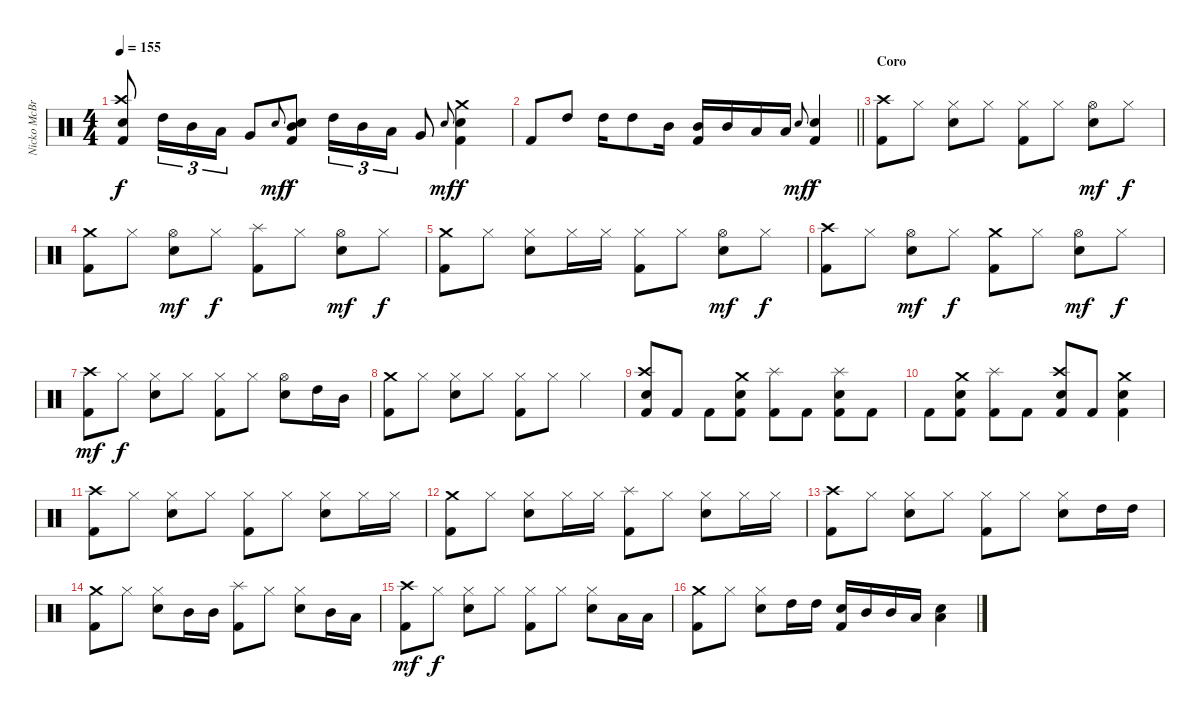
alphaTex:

\track ("Nicko McBrain" "Nicko McBr") {instrument percussion}
\staff {score}
\articulation defaults
\ts (4 4)
\tempo 155
\clef neutral
\ks c
("Snare (hit) 2" "Crash high (hit)" "Kick (hit) 2").8{dy f} "High Tom (hit)".16{tu (3 2)} "Mid Tom (hit)".16{tu (3 2)} "Low Tom (hit)".16{tu (3 2)} "Very Low Tom (hit)".8 "Snare (hit) 2".8{gr onbeat dy mf} ("Snare (hit) 2" "Mid Tom (hit)" "Kick (hit) 2").8{dy f} "High Tom (hit)".16{tu (3 2)} "Mid Tom (hit)".16{tu (3 2)} "Low Tom (hit)".16{tu (3 2)} "Very Low Tom (hit)".8 "Snare (hit) 2".8{gr onbeat dy mf} ("Snare (hit) 2" "Crash medium (hit)" "Kick (hit) 2").4{dy f} |
\barLineRight lightlight "Kick (hit) 2".8 "High Tom (hit)".8 "High Tom (hit)".16 "High Tom (hit)".8 "Mid Tom (hit)".16
("Mid Tom (hit)" "Kick (hit) 2").16 "Mid Tom (hit)".16 "Low Tom (hit)".16 "Low Tom (hit)".16 "Snare (hit) 2".8{gr onbeat dy mf} ("Snare (hit) 2" "Kick (hit) 2").4{dy f} |
\section ("" "Coro")
("Crash high (hit)" "Kick (hit) 2").8 "Hi-Hat (closed)".8 ("Hi-Hat (closed)" "Snare (hit) 2").8 "Hi-Hat (closed)".8 ("Hi-Hat (closed)" "Kick (hit) 2").8 "Hi-Hat (closed)".8 ("Hi-Hat (open)" "Snare (hit) 2").8{dy mf} "Hi-Hat (closed)".8{dy f} |
("Crash medium (hit)" "Kick (hit) 2").8 "Hi-Hat (closed)".8 ("Hi-Hat (open)" "Snare (hit) 2").8{dy mf} "Hi-Hat (closed)".8{dy f} ("Splash (hit)" "Kick (hit) 2").8 "Hi-Hat (closed)".8 ("Hi-Hat (open)" "Snare (hit) 2").8{dy mf} "Hi-Hat (closed)".8{dy f} |
("Crash medium (hit)" "Kick (hit) 2").8 "Hi-Hat (closed)".8 ("Hi-Hat (closed)" "Snare (hit) 2").8 "Hi-Hat (closed)".16 "Hi-Hat (closed)".16 ("Hi-Hat (closed)" "Kick (hit) 2").8 "Hi-Hat (closed)".8 ("Hi-Hat (open)" "Snare (hit) 2").8{dy mf} "Hi-Hat (closed)".8{dy f} |
("Crash high (hit)" "Kick (hit) 2").8 "Hi-Hat (closed)".8 ("Hi-Hat (open)" "Snare (hit) 2").8{dy mf} "Hi-Hat (closed)".8{dy f} ("Crash medium (hit)" "Kick (hit) 2").8 "Hi-Hat (closed)".8 ("Hi-Hat (open)" "Snare (hit) 2").8{dy mf} "Hi-Hat (closed)".8{dy f} |
("Crash high (hit)" "Kick (hit) 2").8{dy mf} "Hi-Hat (closed)".8{dy f} ("Hi-Hat (closed)" "Snare (hit) 2").8 "Hi-Hat (closed)".8 ("Hi-Hat (closed)" "Kick (hit) 2").8 "Hi-Hat (closed)".8 ("Hi-Hat (open)" "Snare (hit) 2").8 "High Tom (hit)".16 "Mid Tom (hit)".16 |
("Crash medium (hit)" "Kick (hit) 2").8 "Hi-Hat (closed)".8 ("Hi-Hat (closed)" "Snare (hit) 2").8 "Hi-Hat (closed)".8 ("Hi-Hat (closed)" "Kick (hit) 2").8 "Hi-Hat (closed)".8 "Hi-Hat (closed)".4 |
("Snare (hit) 2" "Crash high (hit)" "Kick (hit) 2").8 "Kick (hit) 2".8 "Kick (hit) 2".8 ("Snare (hit) 2" "Crash medium (hit)" "Kick (hit) 2").8 ("Splash (hit)" "Kick (hit) 2").8 "Kick (hit) 2".8 ("Snare (hit) 2" "Splash (hit)" "Kick (hit) 2").8 "Kick (hit) 2".8 |
"Kick (hit) 2".8 ("Snare (hit) 2" "Crash medium (hit)" "Kick (hit) 2").8 ("Splash (hit)" "Kick (hit) 2").8 "Kick (hit) 2".8 ("Snare (hit) 2" "Crash high (hit)" "Kick (hit) 2").8 "Kick (hit) 2".8 ("Snare (hit) 2" "Crash medium (hit)" "Kick (hit) 2").4 |
("Crash high (hit)" "Kick (hit) 2").8 "Hi-Hat (closed)".8 ("Hi-Hat (closed)" "Snare (hit) 2").8 "Hi-Hat (closed)".8 ("Hi-Hat (closed)" "Kick (hit) 2").8 "Hi-Hat (closed)".8 ("Hi-Hat (closed)" "Snare (hit) 2").8 "Hi-Hat (closed)".16 "Hi-Hat (closed)".16 |
("Crash medium (hit)" "Kick (hit) 2").8 "Hi-Hat (closed)".8 ("Hi-Hat (closed)" "Snare (hit) 2").8 "Hi-Hat (closed)".16 "Hi-Hat (closed)".16 ("Splash (hit)" "Kick (hit) 2").8 "Hi-Hat (closed)".8 ("Hi-Hat (closed)" "Snare (hit) 2").8 "Hi-Hat (closed)".16 "Hi-Hat (closed)".16 |
("Crash high (hit)" "Kick (hit) 2").8 "Hi-Hat (closed)".8 ("Hi-Hat (closed)" "Snare (hit) 2").8 "Hi-Hat (closed)".8 ("Hi-Hat (closed)" "Kick (hit) 2").8 "Hi-Hat (closed)".8 ("Hi-Hat (closed)" "Snare (hit) 2").8 "High Tom (hit)".16 "High Tom (hit)".16 |
("Crash medium (hit)" "Kick (hit) 2").8 "Hi-Hat (closed)".8 ("Hi-Hat (closed)" "Snare (hit) 2").8 "Mid Tom (hit)".16 "Mid Tom (hit)".16 ("Splash (hit)" "Kick (hit) 2").8 "Hi-Hat (closed)".8 ("Hi-Hat (closed)" "Snare (hit) 2").8 "Mid Tom (hit)".16 "Low Tom (hit)".16 |
("Crash high (hit)" "Kick (hit) 2").8{dy mf} "Hi-Hat (closed)".8{dy f} ("Hi-Hat (closed)" "Snare (hit) 2").8 "Hi-Hat (closed)".8 ("Hi-Hat (closed)" "Kick (hit) 2").8 "Hi-Hat (closed)".8 ("Hi-Hat (closed)" "Snare (hit) 2").8 "Low Tom (hit)".16 "Low Tom (hit)".16 |
("Crash medium (hit)" "Kick (hit) 2").8 "Hi-Hat (closed)".8 ("Hi-Hat (closed)" "Snare (hit) 2").8 "High Tom (hit)".16 "High Tom (hit)".16 ("Snare (hit) 2" "Kick (hit) 2").16 "Mid Tom (hit)".16 "Mid Tom (hit)".16 "Low Tom (hit)".16 ("Snare (hit) 2" "Low Tom (hit)").4
